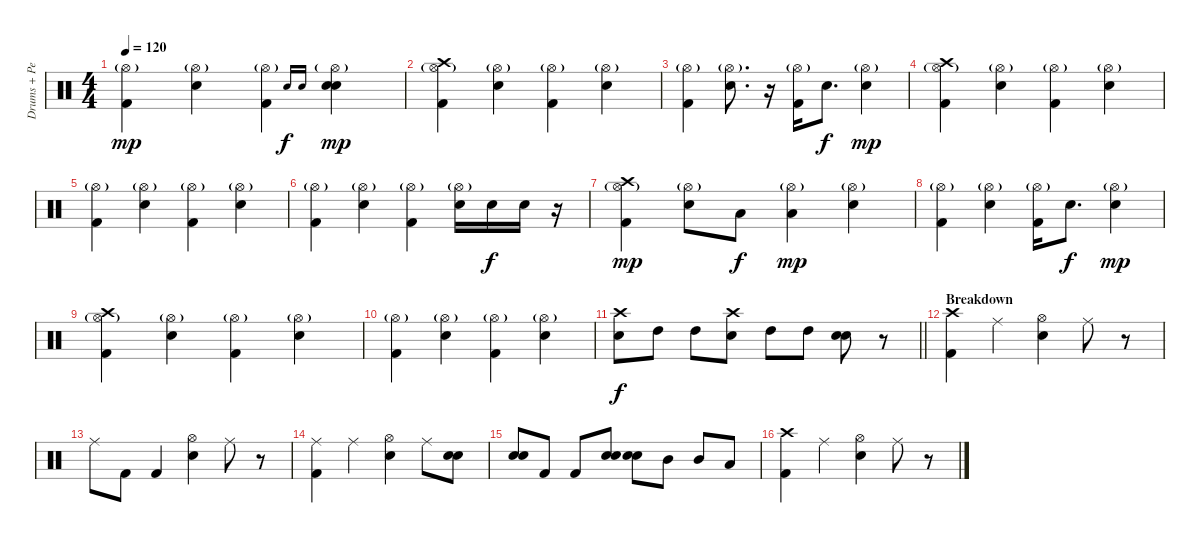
\track ("Drums + Percussion" "Drums + Pe") {instrument percussion}
\staff {score}
\articulation defaults
\ts (4 4)
\tempo 120
\clef neutral
\ks c
("Hi-Hat (open)"{g} "Kick (hit) 2").4{dy mp} ("Hi-Hat (open)"{g} "Electric Snare (hit)").4 ("Hi-Hat (open)"{g} "Kick (hit) 2").4 "Electric Snare (hit)".16{gr onbeat dy f} "Electric Snare (hit)".16{gr onbeat} ("Hi-Hat (open)"{g} "Electric Snare (hit)" "Electric Snare (hit)").4{dy mp} |
("Hi-Hat (open)"{g} "Crash high (hit)" "Kick (hit) 2").4 ("Hi-Hat (open)"{g} "Electric Snare (hit)").4 ("Hi-Hat (open)"{g} "Kick (hit) 2").4 ("Hi-Hat (open)"{g} "Electric Snare (hit)").4 |
("Hi-Hat (open)"{g} "Kick (hit) 2").4 ("Hi-Hat (open)"{g} "Electric Snare (hit)").8{d} r.16 ("Hi-Hat (open)"{g} "Kick (hit) 2").16 "Electric Snare (hit)".8{d dy f} ("Hi-Hat (open)"{g} "Electric Snare (hit)").4{dy mp} |
("Hi-Hat (open)"{g} "Crash high (hit)" "Kick (hit) 2").4 ("Hi-Hat (open)"{g} "Electric Snare (hit)").4 ("Hi-Hat (open)"{g} "Kick (hit) 2").4 ("Hi-Hat (open)"{g} "Electric Snare (hit)").4 |
("Hi-Hat (open)"{g} "Kick (hit) 2").4 ("Hi-Hat (open)"{g} "Electric Snare (hit)").4 ("Hi-Hat (open)"{g} "Kick (hit) 2").4 ("Hi-Hat (open)"{g} "Electric Snare (hit)").4 |
("Hi-Hat (open)"{g} "Kick (hit) 2").4 ("Hi-Hat (open)"{g} "Electric Snare (hit)").4 ("Hi-Hat (open)"{g} "Kick (hit) 2").4 ("Hi-Hat (open)"{g} "Electric Snare (hit)").16 "Electric Snare (hit)".16{dy f} "Electric Snare (hit)".16 r.16 |
("Hi-Hat (open)"{g} "Crash high (hit)" "Kick (hit) 2").4{dy mp} ("Hi-Hat (open)"{g} "Electric Snare (hit)").8 "Low Tom (hit)".8{dy f} ("Hi-Hat (open)"{g} "Low Tom (hit)").4{dy mp} ("Hi-Hat (open)"{g} "Electric Snare (hit)").4 |
("Hi-Hat (open)"{g} "Kick (hit) 2").4 ("Hi-Hat (open)"{g} "Electric Snare (hit)").4 ("Hi-Hat (open)"{g} "Kick (hit) 2").16 "Electric Snare (hit)".8{d dy f} ("Hi-Hat (open)"{g} "Electric Snare (hit)").4{dy mp} |
("Hi-Hat (open)"{g} "Crash high (hit)" "Kick (hit) 2").4 ("Hi-Hat (open)"{g} "Electric Snare (hit)").4 ("Hi-Hat (open)"{g} "Kick (hit) 2").4 ("Hi-Hat (open)"{g} "Electric Snare (hit)").4 |
("Hi-Hat (open)"{g} "Kick (hit) 2").4 ("Hi-Hat (open)"{g} "Electric Snare (hit)").4 ("Hi-Hat (open)"{g} "Kick (hit) 2").4 ("Hi-Hat (open)"{g} "Electric Snare (hit)").4 |
\barLineRight lightlight
("Crash high (hit)" "Electric Snare (hit)").8{dy f} "High Tom (hit)".8 "High Tom (hit)".8 ("Crash high (hit)" "Electric Snare (hit)").8 "High Tom (hit)".8 "High Tom (hit)".8 ("Electric Snare (hit)" "Electric Snare (hit)").8 r.8 |
\section ("" "Breakdown")
("Crash high (hit)" "Kick (hit) 2").4 "Ride (middle)".4 ("Hi-Hat (open)" "Electric Snare (hit)").4 "Ride (middle)".8 r.8 |
"Ride (middle)".8 "Kick (hit) 2".8 "Kick (hit) 2".4 ("Hi-Hat (open)" "Electric Snare (hit)").4 "Ride (middle)".8 r.8 |
("Ride (middle)" "Kick (hit) 2").4 "Ride (middle)".4 ("Hi-Hat (open)" "Electric Snare (hit)").4 "Ride (middle)".8 ("Electric Snare (hit)" "Electric Snare (hit)").8 |
("Electric Snare (hit)" "Electric Snare (hit)").8 "Kick (hit) 2".8 "Kick (hit) 2".8 ("Electric Snare (hit)" "Electric Snare (hit)").8 ("Electric Snare (hit)" "Electric Snare (hit)").8 "Mid Tom (hit)".8 "Mid Tom (hit)".8 "Low Tom (hit)".8 |
("Crash high (hit)" "Kick (hit) 2").4 "Ride (middle)".4 ("Hi-Hat (open)" "Electric Snare (hit)").4 "Ride (middle)".8 r.8
